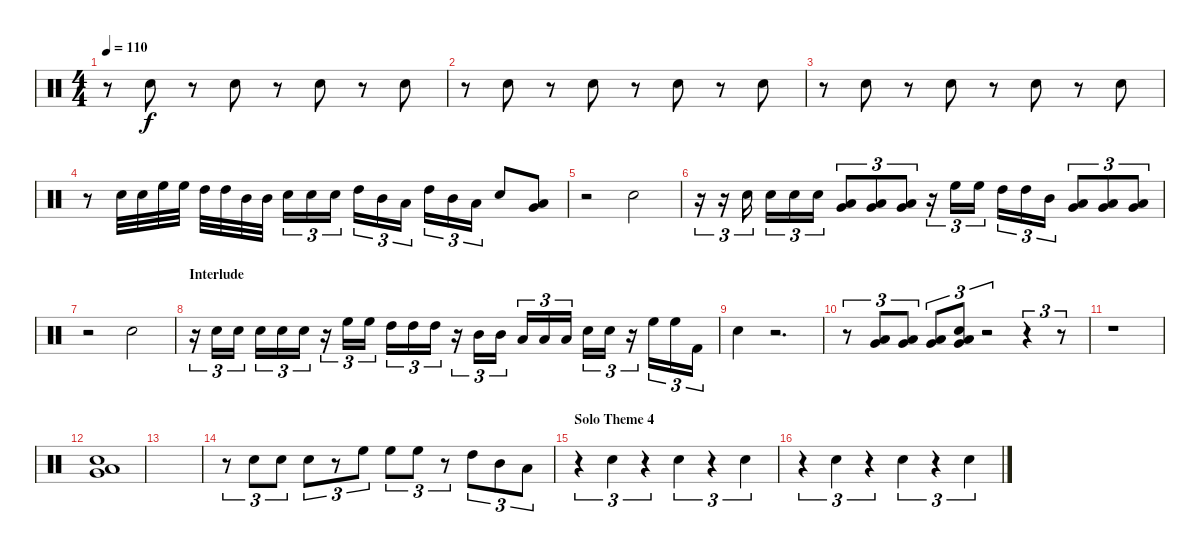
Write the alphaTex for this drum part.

\track "" {instrument percussion}
\staff {score}
\articulation defaults
\ts (4 4)
\tempo 110
\clef neutral
\ks c
r.8{dy f} "Electric Snare (hit)".8 r.8 "Electric Snare (hit)".8 r.8 "Electric Snare (hit)".8 r.8 "Electric Snare (hit)".8 |
r.8 "Electric Snare (hit)".8 r.8 "Electric Snare (hit)".8 r.8 "Electric Snare (hit)".8 r.8 "Electric Snare (hit)".8 |
r.8 "Electric Snare (hit)".8 r.8 "Electric Snare (hit)".8 r.8 "Electric Snare (hit)".8 r.8 "Electric Snare (hit)".8 |
r.8 "Electric Snare (hit)".32 "Electric Snare (hit)".32 "High Floor Tom (hit)".32 "High Floor Tom (hit)".32 "High Tom (hit)".32 "High Tom (hit)".32 "Mid Tom (hit)".32 "Mid Tom (hit)".32 "Electric Snare (hit)".16{tu (3 2)} "Electric Snare (hit)".16{tu (3 2)} "Electric Snare (hit)".16{tu (3 2)} "High Tom (hit)".16{tu (3 2)} "Mid Tom (hit)".16{tu (3 2)} "Low Tom (hit)".16{tu (3 2)} "High Tom (hit)".16{tu (3 2)} "Mid Tom (hit)".16{tu (3 2)} "Low Tom (hit)".16{tu (3 2)} "Electric Snare (hit)".8 ("Very Low Tom (hit)" "Low Tom (hit)").8 |
r.2 "Electric Snare (hit)".2 |
r.16{tu (3 2)} r.16{tu (3 2)} "Electric Snare (hit)".16{tu (3 2)} "Electric Snare (hit)".16{tu (3 2)} "Electric Snare (hit)".16{tu (3 2)} "Electric Snare (hit)".16{tu (3 2)} ("Very Low Tom (hit)" "Low Tom (hit)").8{tu (3 2)} ("Very Low Tom (hit)" "Low Tom (hit)").8{tu (3 2)} ("Very Low Tom (hit)" "Low Tom (hit)").8{tu (3 2)} r.16{tu (3 2)} "High Floor Tom (hit)".16{tu (3 2)} "High Floor Tom (hit)".16{tu (3 2)} "High Tom (hit)".16{tu (3 2)} "High Tom (hit)".16{tu (3 2)} "Mid Tom (hit)".16{tu (3 2)} ("Very Low Tom (hit)" "Low Tom (hit)").8{tu (3 2)} ("Very Low Tom (hit)" "Low Tom (hit)").8{tu (3 2)} ("Very Low Tom (hit)" "Low Tom (hit)").8{tu (3 2)} |
r.2 "Electric Snare (hit)".2 |
\section ("" "Interlude")
r.16{tu (3 2)} "Electric Snare (hit)".16{tu (3 2)} "Electric Snare (hit)".16{tu (3 2)} "Electric Snare (hit)".16{tu (3 2)} "Electric Snare (hit)".16{tu (3 2)} "Electric Snare (hit)".16{tu (3 2)} r.16{tu (3 2)} "High Floor Tom (hit)".16{tu (3 2)} "High Floor Tom (hit)".16{tu (3 2)} "High Tom (hit)".16{tu (3 2)} "High Tom (hit)".16{tu (3 2)} "High Tom (hit)".16{tu (3 2)} r.16{tu (3 2)} "Mid Tom (hit)".16{tu (3 2)} "Mid Tom (hit)".16{tu (3 2)} "Low Tom (hit)".16{tu (3 2)} "Low Tom (hit)".16{tu (3 2)} "Low Tom (hit)".16{tu (3 2)} "Electric Snare (hit)".16{tu (3 2)} "Electric Snare (hit)".16{tu (3 2)} r.16{tu (3 2)} "High Floor Tom (hit)".16{tu (3 2)} "High Floor Tom (hit)".16{tu (3 2)} "Kick (hit) 2".16{tu (3 2)} |
"Electric Snare (hit)".4 r.2{d} |
r.8{tu (3 2)} ("Very Low Tom (hit)" "Low Tom (hit)").8{tu (3 2)} ("Very Low Tom (hit)" "Low Tom (hit)").8{tu (3 2)} ("Very Low Tom (hit)" "Low Tom (hit)").8{tu (3 2)} ("Low Tom (hit)" "Very Low Tom (hit)" "Electric Snare (hit)").8{tu (3 2)} r.2{tu (3 2)} r.4{tu (3 2)} r.8{tu (3 2)} |
r.1 |
("Very Low Tom (hit)" "Low Tom (hit)" "Electric Snare (hit)").1 |
|
r.8{tu (3 2)} "Electric Snare (hit)".8{tu (3 2)} "Electric Snare (hit)".8{tu (3 2)} "Electric Snare (hit)".8{tu (3 2)} r.8{tu (3 2)} "High Floor Tom (hit)".8{tu (3 2)} "High Floor Tom (hit)".8{tu (3 2)} "High Floor Tom (hit)".8{tu (3 2)} r.8{tu (3 2)} "High Tom (hit)".8{tu (3 2)} "Mid Tom (hit)".8{tu (3 2)} "Low Tom (hit)".8{tu (3 2)} |
\section ("" "Solo Theme 4")
r.4{tu (3 2)} "Electric Snare (hit)".4{tu (3 2)} r.4{tu (3 2)} "Electric Snare (hit)".4{tu (3 2)} r.4{tu (3 2)} "Electric Snare (hit)".4{tu (3 2)} |
r.4{tu (3 2)} "Electric Snare (hit)".4{tu (3 2)} r.4{tu (3 2)} "Electric Snare (hit)".4{tu (3 2)} r.4{tu (3 2)} "Electric Snare (hit)".4{tu (3 2)}
